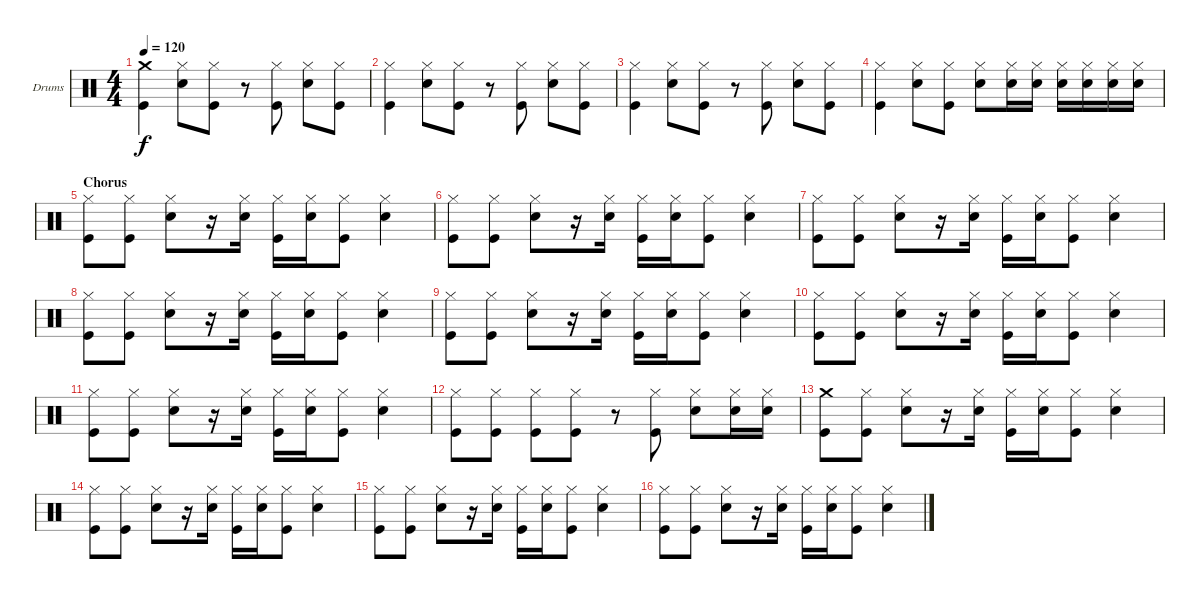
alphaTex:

\defaultSystemsLayout 4
\bracketExtendMode groupsimilarinstruments
\firstSystemTrackNameOrientation horizontal
\otherSystemsTrackNameOrientation horizontal
\track ("Drum" "Drums") {instrument percussion}
\staff {score}
\articulation defaults
\ts (4 4)
\tempo 120
\clef neutral
\ks c
("Crash medium (hit)" "Kick (hit)").4{dy f} ("Hi-Hat (closed)" "Snare (hit) 2").8 ("Hi-Hat (closed)" "Kick (hit)").8 r.8 ("Hi-Hat (closed)" "Kick (hit)").8 ("Hi-Hat (closed)" "Snare (hit) 2").8 ("Hi-Hat (closed)" "Kick (hit)").8 |
("Hi-Hat (closed)" "Kick (hit)").4 ("Hi-Hat (closed)" "Snare (hit) 2").8 ("Hi-Hat (closed)" "Kick (hit)").8 r.8 ("Hi-Hat (closed)" "Kick (hit)").8 ("Hi-Hat (closed)" "Snare (hit) 2").8 ("Hi-Hat (closed)" "Kick (hit)").8 |
("Hi-Hat (closed)" "Kick (hit)").4 ("Hi-Hat (closed)" "Snare (hit) 2").8 ("Hi-Hat (closed)" "Kick (hit)").8 r.8 ("Hi-Hat (closed)" "Kick (hit)").8 ("Hi-Hat (closed)" "Snare (hit) 2").8 ("Hi-Hat (closed)" "Kick (hit)").8 |
("Hi-Hat (closed)" "Kick (hit)").4 ("Hi-Hat (closed)" "Snare (hit) 2").8 ("Hi-Hat (closed)" "Kick (hit)").8 ("Hi-Hat (closed)" "Snare (hit) 2").8 ("Hi-Hat (closed)" "Snare (hit) 2").16 ("Hi-Hat (closed)" "Snare (hit) 2").16 ("Hi-Hat (closed)" "Snare (hit) 2").16 ("Hi-Hat (closed)" "Snare (hit) 2").16 ("Hi-Hat (closed)" "Snare (hit) 2").16 ("Hi-Hat (closed)" "Snare (hit) 2").16 |
\section ("" "Chorus")
("Hi-Hat (closed)" "Kick (hit)").8 ("Hi-Hat (closed)" "Kick (hit)").8 ("Hi-Hat (closed)" "Snare (hit) 2").8 r.16 ("Hi-Hat (closed)" "Snare (hit) 2").16 ("Hi-Hat (closed)" "Kick (hit)").16 ("Hi-Hat (closed)" "Snare (hit) 2").16 ("Hi-Hat (closed)" "Kick (hit)").8 ("Hi-Hat (closed)" "Snare (hit) 2").4 |
("Hi-Hat (closed)" "Kick (hit)").8 ("Hi-Hat (closed)" "Kick (hit)").8 ("Hi-Hat (closed)" "Snare (hit) 2").8 r.16 ("Hi-Hat (closed)" "Snare (hit) 2").16 ("Hi-Hat (closed)" "Kick (hit)").16 ("Hi-Hat (closed)" "Snare (hit) 2").16 ("Hi-Hat (closed)" "Kick (hit)").8 ("Hi-Hat (closed)" "Snare (hit) 2").4 |
("Hi-Hat (closed)" "Kick (hit)").8 ("Hi-Hat (closed)" "Kick (hit)").8 ("Hi-Hat (closed)" "Snare (hit) 2").8 r.16 ("Hi-Hat (closed)" "Snare (hit) 2").16 ("Hi-Hat (closed)" "Kick (hit)").16 ("Hi-Hat (closed)" "Snare (hit) 2").16 ("Hi-Hat (closed)" "Kick (hit)").8 ("Hi-Hat (closed)" "Snare (hit) 2").4 |
("Hi-Hat (closed)" "Kick (hit)").8 ("Hi-Hat (closed)" "Kick (hit)").8 ("Hi-Hat (closed)" "Snare (hit) 2").8 r.16 ("Hi-Hat (closed)" "Snare (hit) 2").16 ("Hi-Hat (closed)" "Kick (hit)").16 ("Hi-Hat (closed)" "Snare (hit) 2").16 ("Hi-Hat (closed)" "Kick (hit)").8 ("Hi-Hat (closed)" "Snare (hit) 2").4 |
("Hi-Hat (closed)" "Kick (hit)").8 ("Hi-Hat (closed)" "Kick (hit)").8 ("Hi-Hat (closed)" "Snare (hit) 2").8 r.16 ("Hi-Hat (closed)" "Snare (hit) 2").16 ("Hi-Hat (closed)" "Kick (hit)").16 ("Hi-Hat (closed)" "Snare (hit) 2").16 ("Hi-Hat (closed)" "Kick (hit)").8 ("Hi-Hat (closed)" "Snare (hit) 2").4 |
("Hi-Hat (closed)" "Kick (hit)").8 ("Hi-Hat (closed)" "Kick (hit)").8 ("Hi-Hat (closed)" "Snare (hit) 2").8 r.16 ("Hi-Hat (closed)" "Snare (hit) 2").16 ("Hi-Hat (closed)" "Kick (hit)").16 ("Hi-Hat (closed)" "Snare (hit) 2").16 ("Hi-Hat (closed)" "Kick (hit)").8 ("Hi-Hat (closed)" "Snare (hit) 2").4 |
("Hi-Hat (closed)" "Kick (hit)").8 ("Hi-Hat (closed)" "Kick (hit)").8 ("Hi-Hat (closed)" "Snare (hit) 2").8 r.16 ("Hi-Hat (closed)" "Snare (hit) 2").16 ("Hi-Hat (closed)" "Kick (hit)").16 ("Hi-Hat (closed)" "Snare (hit) 2").16 ("Hi-Hat (closed)" "Kick (hit)").8 ("Hi-Hat (closed)" "Snare (hit) 2").4 |
("Hi-Hat (closed)" "Kick (hit)").8 ("Hi-Hat (closed)" "Kick (hit)").8 ("Hi-Hat (closed)" "Kick (hit)").8 ("Hi-Hat (closed)" "Kick (hit)").8 r.8 ("Hi-Hat (closed)" "Kick (hit)").8 ("Hi-Hat (closed)" "Snare (hit) 2").8 ("Hi-Hat (closed)" "Snare (hit) 2").16 ("Hi-Hat (closed)" "Snare (hit) 2").16 |
("Crash medium (hit)" "Kick (hit)").8 ("Hi-Hat (closed)" "Kick (hit)").8 ("Hi-Hat (closed)" "Snare (hit) 2").8 r.16 ("Hi-Hat (closed)" "Snare (hit) 2").16 ("Hi-Hat (closed)" "Kick (hit)").16 ("Hi-Hat (closed)" "Snare (hit) 2").16 ("Hi-Hat (closed)" "Kick (hit)").8 ("Hi-Hat (closed)" "Snare (hit) 2").4 |
("Hi-Hat (closed)" "Kick (hit)").8 ("Hi-Hat (closed)" "Kick (hit)").8 ("Hi-Hat (closed)" "Snare (hit) 2").8 r.16 ("Hi-Hat (closed)" "Snare (hit) 2").16 ("Hi-Hat (closed)" "Kick (hit)").16 ("Hi-Hat (closed)" "Snare (hit) 2").16 ("Hi-Hat (closed)" "Kick (hit)").8 ("Hi-Hat (closed)" "Snare (hit) 2").4 |
("Hi-Hat (closed)" "Kick (hit)").8 ("Hi-Hat (closed)" "Kick (hit)").8 ("Hi-Hat (closed)" "Snare (hit) 2").8 r.16 ("Hi-Hat (closed)" "Snare (hit) 2").16 ("Hi-Hat (closed)" "Kick (hit)").16 ("Hi-Hat (closed)" "Snare (hit) 2").16 ("Hi-Hat (closed)" "Kick (hit)").8 ("Hi-Hat (closed)" "Snare (hit) 2").4 |
("Hi-Hat (closed)" "Kick (hit)").8 ("Hi-Hat (closed)" "Kick (hit)").8 ("Hi-Hat (closed)" "Snare (hit) 2").8 r.16 ("Hi-Hat (closed)" "Snare (hit) 2").16 ("Hi-Hat (closed)" "Kick (hit)").16 ("Hi-Hat (closed)" "Snare (hit) 2").16 ("Hi-Hat (closed)" "Kick (hit)").8 ("Hi-Hat (closed)" "Snare (hit) 2").4
